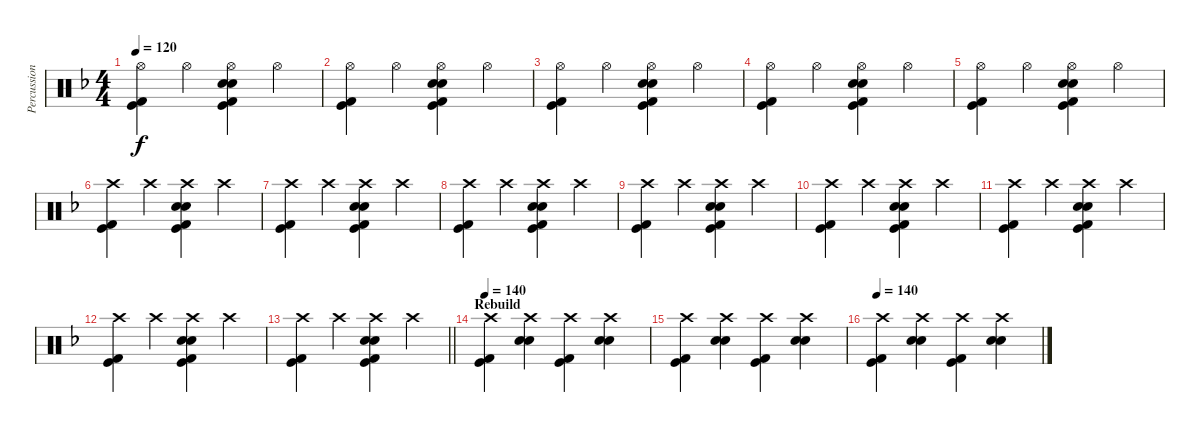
\track ("Percussion" "Percussion") {instrument percussion}
\staff {score}
\articulation defaults
\ts (4 4)
\tempo 120
\clef neutral
\ks dminor
("Hi-Hat (open)" "Kick (hit) 2" "Kick (hit)").4{dy f} "Hi-Hat (open)".4 ("Hi-Hat (open)" "Electric Snare (hit)" "Electric Snare (hit)" "Kick (hit) 2" "Kick (hit)").4 "Hi-Hat (open)".4 |
("Hi-Hat (open)" "Kick (hit) 2" "Kick (hit)").4 "Hi-Hat (open)".4 ("Hi-Hat (open)" "Electric Snare (hit)" "Electric Snare (hit)" "Kick (hit) 2" "Kick (hit)").4 "Hi-Hat (open)".4 |
("Hi-Hat (open)" "Kick (hit) 2" "Kick (hit)").4 "Hi-Hat (open)".4 ("Hi-Hat (open)" "Electric Snare (hit)" "Electric Snare (hit)" "Kick (hit) 2" "Kick (hit)").4 "Hi-Hat (open)".4 |
("Hi-Hat (open)" "Kick (hit) 2" "Kick (hit)").4 "Hi-Hat (open)".4 ("Hi-Hat (open)" "Electric Snare (hit)" "Electric Snare (hit)" "Kick (hit) 2" "Kick (hit)").4 "Hi-Hat (open)".4 |
("Hi-Hat (open)" "Kick (hit) 2" "Kick (hit)").4 "Hi-Hat (open)".4 ("Hi-Hat (open)" "Electric Snare (hit)" "Electric Snare (hit)" "Kick (hit) 2" "Kick (hit)").4 "Hi-Hat (open)".4 |
("Crash high (hit)" "Kick (hit) 2" "Kick (hit)").4 "Crash high (hit)".4 ("Crash high (hit)" "Electric Snare (hit)" "Electric Snare (hit)" "Kick (hit) 2" "Kick (hit)").4 "Crash high (hit)".4 |
("Crash high (hit)" "Kick (hit) 2" "Kick (hit)").4 "Crash high (hit)".4 ("Crash high (hit)" "Electric Snare (hit)" "Electric Snare (hit)" "Kick (hit) 2" "Kick (hit)").4 "Crash high (hit)".4 |
("Crash high (hit)" "Kick (hit) 2" "Kick (hit)").4 "Crash high (hit)".4 ("Crash high (hit)" "Electric Snare (hit)" "Electric Snare (hit)" "Kick (hit) 2" "Kick (hit)").4 "Crash high (hit)".4 |
("Crash high (hit)" "Kick (hit) 2" "Kick (hit)").4 "Crash high (hit)".4 ("Crash high (hit)" "Electric Snare (hit)" "Electric Snare (hit)" "Kick (hit) 2" "Kick (hit)").4 "Crash high (hit)".4 |
("Crash high (hit)" "Kick (hit) 2" "Kick (hit)").4 "Crash high (hit)".4 ("Crash high (hit)" "Electric Snare (hit)" "Electric Snare (hit)" "Kick (hit) 2" "Kick (hit)").4 "Crash high (hit)".4 |
("Crash high (hit)" "Kick (hit) 2" "Kick (hit)").4 "Crash high (hit)".4 ("Crash high (hit)" "Electric Snare (hit)" "Electric Snare (hit)" "Kick (hit) 2" "Kick (hit)").4 "Crash high (hit)".4 |
("Crash high (hit)" "Kick (hit) 2" "Kick (hit)").4 "Crash high (hit)".4 ("Crash high (hit)" "Electric Snare (hit)" "Electric Snare (hit)" "Kick (hit) 2" "Kick (hit)").4 "Crash high (hit)".4 |
\barLineRight lightlight
("Crash high (hit)" "Kick (hit) 2" "Kick (hit)").4 "Crash high (hit)".4 ("Crash high (hit)" "Electric Snare (hit)" "Electric Snare (hit)" "Kick (hit) 2" "Kick (hit)").4 "Crash high (hit)".4 |
\section ("" "Rebuild")
\tempo 140
("Crash high (hit)" "Kick (hit) 2" "Kick (hit)").4 ("Crash high (hit)" "Electric Snare (hit)" "Electric Snare (hit)").4 ("Crash high (hit)" "Kick (hit)" "Kick (hit) 2").4 ("Crash high (hit)" "Electric Snare (hit)" "Electric Snare (hit)").4 |
("Crash high (hit)" "Kick (hit) 2" "Kick (hit)").4 ("Crash high (hit)" "Electric Snare (hit)" "Electric Snare (hit)").4 ("Crash high (hit)" "Kick (hit)" "Kick (hit) 2").4 ("Crash high (hit)" "Electric Snare (hit)" "Electric Snare (hit)").4 |
\tempo 140
("Crash high (hit)" "Kick (hit) 2" "Kick (hit)").4 ("Crash high (hit)" "Electric Snare (hit)" "Electric Snare (hit)").4 ("Crash high (hit)" "Kick (hit)" "Kick (hit) 2").4 ("Crash high (hit)" "Electric Snare (hit)" "Electric Snare (hit)").4
